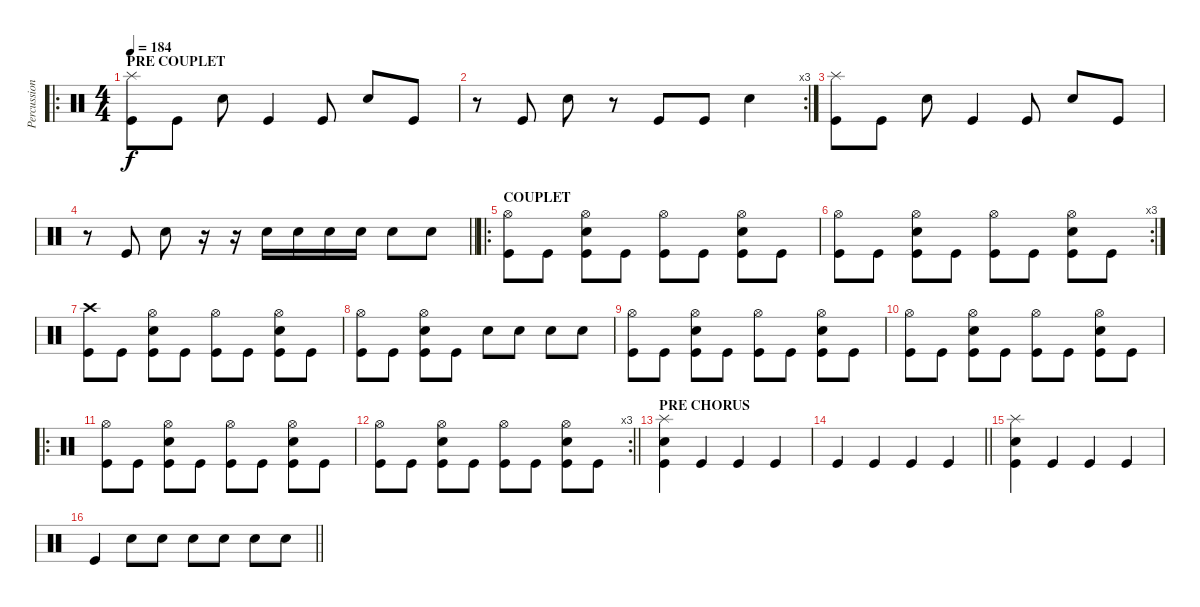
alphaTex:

\track ("Percussions" "Percussion") {instrument percussion}
\staff {score}
\articulation defaults
\ro
\ts (4 4)
\section ("" "PRE COUPLET")
\tempo 184
\clef neutral
\ks c
("Splash (hit)" "Kick (hit)").8{dy f} "Kick (hit)".8 "Electric Snare (hit)".8 "Kick (hit)".4 "Kick (hit)".8 "Electric Snare (hit)".8 "Kick (hit)".8 |
\rc 3
r.8 "Kick (hit)".8 "Electric Snare (hit)".8 r.8 "Kick (hit)".8 "Kick (hit)".8 "Electric Snare (hit)".4 |
("Splash (hit)" "Kick (hit)").8 "Kick (hit)".8 "Electric Snare (hit)".8 "Kick (hit)".4 "Kick (hit)".8 "Electric Snare (hit)".8 "Kick (hit)".8 |
\barLineRight lightlight
r.8 "Kick (hit)".8 "Electric Snare (hit)".8 r.16 r.16 "Electric Snare (hit)".16 "Electric Snare (hit)".16 "Electric Snare (hit)".16 "Electric Snare (hit)".16 "Electric Snare (hit)".8 "Electric Snare (hit)".8 |
\ro
\section ("" "COUPLET")
("Hi-Hat (open)" "Kick (hit)").8 "Kick (hit)".8 ("Hi-Hat (open)" "Electric Snare (hit)" "Kick (hit)").8 "Kick (hit)".8 ("Hi-Hat (open)" "Kick (hit)").8 "Kick (hit)".8 ("Hi-Hat (open)" "Electric Snare (hit)" "Kick (hit)").8 "Kick (hit)".8 |
\rc 3
("Hi-Hat (open)" "Kick (hit)").8 "Kick (hit)".8 ("Hi-Hat (open)" "Electric Snare (hit)" "Kick (hit)").8 "Kick (hit)".8 ("Hi-Hat (open)" "Kick (hit)").8 "Kick (hit)".8 ("Hi-Hat (open)" "Electric Snare (hit)" "Kick (hit)").8 "Kick (hit)".8 |
("Crash high (hit)" "Kick (hit)").8 "Kick (hit)".8 ("Hi-Hat (open)" "Electric Snare (hit)" "Kick (hit)").8 "Kick (hit)".8 ("Hi-Hat (open)" "Kick (hit)").8 "Kick (hit)".8 ("Hi-Hat (open)" "Electric Snare (hit)" "Kick (hit)").8 "Kick (hit)".8 |
("Hi-Hat (open)" "Kick (hit)").8 "Kick (hit)".8 ("Hi-Hat (open)" "Electric Snare (hit)" "Kick (hit)").8 "Kick (hit)".8 "Electric Snare (hit)".8 "Electric Snare (hit)".8 "Electric Snare (hit)".8 "Electric Snare (hit)".8 |
("Hi-Hat (open)" "Kick (hit)").8 "Kick (hit)".8 ("Hi-Hat (open)" "Electric Snare (hit)" "Kick (hit)").8 "Kick (hit)".8 ("Hi-Hat (open)" "Kick (hit)").8 "Kick (hit)".8 ("Hi-Hat (open)" "Electric Snare (hit)" "Kick (hit)").8 "Kick (hit)".8 |
("Hi-Hat (open)" "Kick (hit)").8 "Kick (hit)".8 ("Hi-Hat (open)" "Electric Snare (hit)" "Kick (hit)").8 "Kick (hit)".8 ("Hi-Hat (open)" "Kick (hit)").8 "Kick (hit)".8 ("Hi-Hat (open)" "Electric Snare (hit)" "Kick (hit)").8 "Kick (hit)".8 |
\ro
("Hi-Hat (open)" "Kick (hit)").8 "Kick (hit)".8 ("Hi-Hat (open)" "Electric Snare (hit)" "Kick (hit)").8 "Kick (hit)".8 ("Hi-Hat (open)" "Kick (hit)").8 "Kick (hit)".8 ("Hi-Hat (open)" "Electric Snare (hit)" "Kick (hit)").8 "Kick (hit)".8 |
\rc 3
\barLineRight lightlight
("Hi-Hat (open)" "Kick (hit)").8 "Kick (hit)".8 ("Hi-Hat (open)" "Electric Snare (hit)" "Kick (hit)").8 "Kick (hit)".8 ("Hi-Hat (open)" "Kick (hit)").8 "Kick (hit)".8 ("Hi-Hat (open)" "Electric Snare (hit)" "Kick (hit)").8 "Kick (hit)".8 |
\section ("" "PRE CHORUS")
("Electric Snare (hit)" "Splash (hit)" "Kick (hit)").4 "Kick (hit)".4 "Kick (hit)".4 "Kick (hit)".4 |
\barLineRight lightlight "Kick (hit)".4 "Kick (hit)".4 "Kick (hit)".4 "Kick (hit)".4
|
("Electric Snare (hit)" "Splash (hit)" "Kick (hit)").4 "Kick (hit)".4 "Kick (hit)".4 "Kick (hit)".4 |
\barLineRight lightlight "Kick (hit)".4 "Electric Snare (hit)".8 "Electric Snare (hit)".8 "Electric Snare (hit)".8 "Electric Snare (hit)".8 "Electric Snare (hit)".8 "Electric Snare (hit)".8
